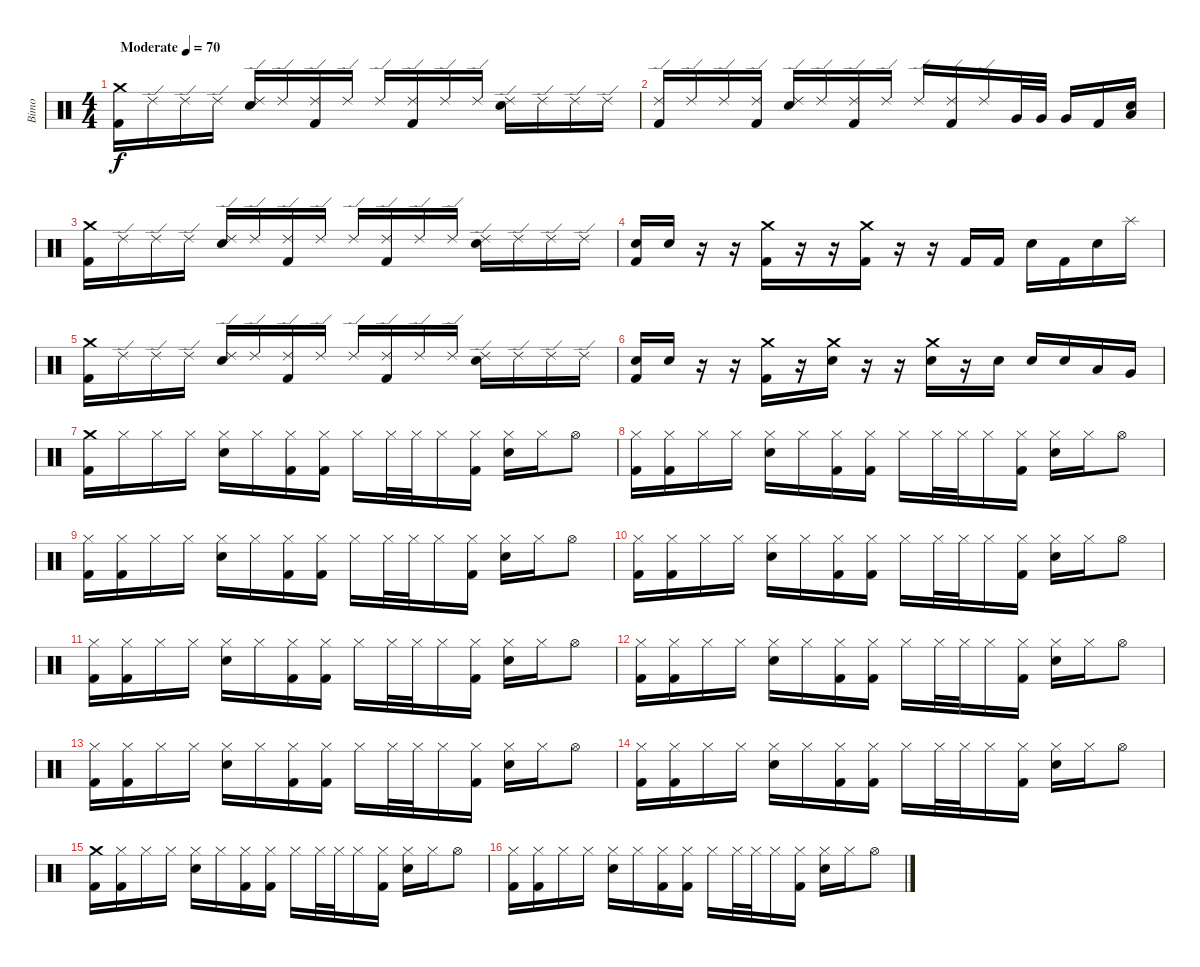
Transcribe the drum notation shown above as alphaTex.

\track ("Bimo" "Bimo") {instrument percussion}
\staff {score}
\articulation defaults
\ts (4 4)
\tempo (70 "Moderate")
\clef neutral
\ks c
("Crash medium (hit)" "Kick (hit) 2").16{dy f} "Ride (edge) 2".16 "Ride (edge) 2".16 "Ride (edge) 2".16 ("Ride (edge) 2" "Electric Snare (hit)").16 "Ride (edge) 2".16 ("Ride (edge) 2" "Kick (hit) 2").16 "Ride (edge) 2".16 "Ride (edge) 2".16 ("Ride (edge) 2" "Kick (hit) 2").16 "Ride (edge) 2".16 "Ride (edge) 2".16 ("Ride (edge) 2" "Electric Snare (hit)").16 "Ride (edge) 2".16 "Ride (edge) 2".16 "Ride (edge) 2".16 |
("Ride (edge) 2" "Kick (hit) 2").16 "Ride (edge) 2".16 "Ride (edge) 2".16 ("Ride (edge) 2" "Kick (hit) 2").16 ("Ride (edge) 2" "Electric Snare (hit)").16 "Ride (edge) 2".16 ("Ride (edge) 2" "Kick (hit) 2").16 "Ride (edge) 2".16 "Ride (edge) 2".16 ("Ride (edge) 2" "Kick (hit) 2").16 "Ride (edge) 2".16 "Very Low Tom (hit)".32 "Very Low Tom (hit)".32 "Very Low Tom (hit)".16 "Kick (hit) 2".16 ("Electric Snare (hit)" "Low Floor Tom (hit)").16 |
("Crash medium (hit)" "Kick (hit) 2").16 "Ride (edge) 2".16 "Ride (edge) 2".16 "Ride (edge) 2".16 ("Ride (edge) 2" "Electric Snare (hit)").16 "Ride (edge) 2".16 ("Ride (edge) 2" "Kick (hit) 2").16 "Ride (edge) 2".16 "Ride (edge) 2".16 ("Ride (edge) 2" "Kick (hit) 2").16 "Ride (edge) 2".16 "Ride (edge) 2".16 ("Ride (edge) 2" "Electric Snare (hit)").16 "Ride (edge) 2".16 "Ride (edge) 2".16 "Ride (edge) 2".16 |
("Electric Snare (hit)" "Kick (hit) 2").16 "Electric Snare (hit)".16 r.16 r.16 ("Crash medium (hit)" "Kick (hit) 2").16 r.16 r.16 ("Crash medium (hit)" "Kick (hit) 2").16 r.16 r.16 "Kick (hit) 2".16 "Kick (hit) 2".16 "Electric Snare (hit)".16 "Kick (hit) 2".16 "Electric Snare (hit)".16 "Splash (hit)".16 |
("Crash medium (hit)" "Kick (hit) 2").16 "Ride (edge) 2".16 "Ride (edge) 2".16 "Ride (edge) 2".16 ("Ride (edge) 2" "Electric Snare (hit)").16 "Ride (edge) 2".16 ("Ride (edge) 2" "Kick (hit) 2").16 "Ride (edge) 2".16 "Ride (edge) 2".16 ("Ride (edge) 2" "Kick (hit) 2").16 "Ride (edge) 2".16 "Ride (edge) 2".16 ("Ride (edge) 2" "Electric Snare (hit)").16 "Ride (edge) 2".16 "Ride (edge) 2".16 "Ride (edge) 2".16 |
("Electric Snare (hit)" "Kick (hit) 2").16 "Electric Snare (hit)".16 r.16 r.16 ("Crash medium (hit)" "Kick (hit) 2").16 r.16 ("Crash medium (hit)" "Electric Snare (hit)").16 r.16 r.16 ("Crash medium (hit)" "Electric Snare (hit)").16 r.16 "Electric Snare (hit)".16 "Electric Snare (hit)".16 "Electric Snare (hit)".16 "Low Tom (hit)".16 "Very Low Tom (hit)".16 |
("Crash medium (hit)" "Kick (hit) 2").16 "Hi-Hat (closed)".16 "Hi-Hat (closed)".16 "Hi-Hat (closed)".16 ("Hi-Hat (closed)" "Snare (hit) 2").16 "Hi-Hat (closed)".16 ("Hi-Hat (closed)" "Kick (hit) 2").16 ("Hi-Hat (closed)" "Kick (hit) 2").16 "Hi-Hat (closed)".16 "Hi-Hat (closed)".32 "Hi-Hat (closed)".32 "Hi-Hat (closed)".16 ("Hi-Hat (closed)" "Kick (hit) 2").16 ("Hi-Hat (closed)" "Snare (hit) 2").16 "Hi-Hat (closed)".16 "Hi-Hat (open)".8 |
("Hi-Hat (closed)" "Kick (hit) 2").16 ("Hi-Hat (closed)" "Kick (hit) 2").16 "Hi-Hat (closed)".16 "Hi-Hat (closed)".16 ("Hi-Hat (closed)" "Snare (hit) 2").16 "Hi-Hat (closed)".16 ("Hi-Hat (closed)" "Kick (hit) 2").16 ("Hi-Hat (closed)" "Kick (hit) 2").16 "Hi-Hat (closed)".16 "Hi-Hat (closed)".32 "Hi-Hat (closed)".32 "Hi-Hat (closed)".16 ("Hi-Hat (closed)" "Kick (hit) 2").16 ("Hi-Hat (closed)" "Snare (hit) 2").16 "Hi-Hat (closed)".16 "Hi-Hat (open)".8 |
("Hi-Hat (closed)" "Kick (hit) 2").16 ("Hi-Hat (closed)" "Kick (hit) 2").16 "Hi-Hat (closed)".16 "Hi-Hat (closed)".16 ("Hi-Hat (closed)" "Snare (hit) 2").16 "Hi-Hat (closed)".16 ("Hi-Hat (closed)" "Kick (hit) 2").16 ("Hi-Hat (closed)" "Kick (hit) 2").16 "Hi-Hat (closed)".16 "Hi-Hat (closed)".32 "Hi-Hat (closed)".32 "Hi-Hat (closed)".16 ("Hi-Hat (closed)" "Kick (hit) 2").16 ("Hi-Hat (closed)" "Snare (hit) 2").16 "Hi-Hat (closed)".16 "Hi-Hat (open)".8 |
("Hi-Hat (closed)" "Kick (hit) 2").16 ("Hi-Hat (closed)" "Kick (hit) 2").16 "Hi-Hat (closed)".16 "Hi-Hat (closed)".16 ("Hi-Hat (closed)" "Snare (hit) 2").16 "Hi-Hat (closed)".16 ("Hi-Hat (closed)" "Kick (hit) 2").16 ("Hi-Hat (closed)" "Kick (hit) 2").16 "Hi-Hat (closed)".16 "Hi-Hat (closed)".32 "Hi-Hat (closed)".32 "Hi-Hat (closed)".16 ("Hi-Hat (closed)" "Kick (hit) 2").16 ("Hi-Hat (closed)" "Snare (hit) 2").16 "Hi-Hat (closed)".16 "Hi-Hat (open)".8 |
("Hi-Hat (closed)" "Kick (hit) 2").16 ("Hi-Hat (closed)" "Kick (hit) 2").16 "Hi-Hat (closed)".16 "Hi-Hat (closed)".16 ("Hi-Hat (closed)" "Snare (hit) 2").16 "Hi-Hat (closed)".16 ("Hi-Hat (closed)" "Kick (hit) 2").16 ("Hi-Hat (closed)" "Kick (hit) 2").16 "Hi-Hat (closed)".16 "Hi-Hat (closed)".32 "Hi-Hat (closed)".32 "Hi-Hat (closed)".16 ("Hi-Hat (closed)" "Kick (hit) 2").16 ("Hi-Hat (closed)" "Snare (hit) 2").16 "Hi-Hat (closed)".16 "Hi-Hat (open)".8 |
("Hi-Hat (closed)" "Kick (hit) 2").16 ("Hi-Hat (closed)" "Kick (hit) 2").16 "Hi-Hat (closed)".16 "Hi-Hat (closed)".16 ("Hi-Hat (closed)" "Snare (hit) 2").16 "Hi-Hat (closed)".16 ("Hi-Hat (closed)" "Kick (hit) 2").16 ("Hi-Hat (closed)" "Kick (hit) 2").16 "Hi-Hat (closed)".16 "Hi-Hat (closed)".32 "Hi-Hat (closed)".32 "Hi-Hat (closed)".16 ("Hi-Hat (closed)" "Kick (hit) 2").16 ("Hi-Hat (closed)" "Snare (hit) 2").16 "Hi-Hat (closed)".16 "Hi-Hat (open)".8 |
("Hi-Hat (closed)" "Kick (hit) 2").16 ("Hi-Hat (closed)" "Kick (hit) 2").16 "Hi-Hat (closed)".16 "Hi-Hat (closed)".16 ("Hi-Hat (closed)" "Snare (hit) 2").16 "Hi-Hat (closed)".16 ("Hi-Hat (closed)" "Kick (hit) 2").16 ("Hi-Hat (closed)" "Kick (hit) 2").16 "Hi-Hat (closed)".16 "Hi-Hat (closed)".32 "Hi-Hat (closed)".32 "Hi-Hat (closed)".16 ("Hi-Hat (closed)" "Kick (hit) 2").16 ("Hi-Hat (closed)" "Snare (hit) 2").16 "Hi-Hat (closed)".16 "Hi-Hat (open)".8 |
("Hi-Hat (closed)" "Kick (hit) 2").16 ("Hi-Hat (closed)" "Kick (hit) 2").16 "Hi-Hat (closed)".16 "Hi-Hat (closed)".16 ("Hi-Hat (closed)" "Snare (hit) 2").16 "Hi-Hat (closed)".16 ("Hi-Hat (closed)" "Kick (hit) 2").16 ("Hi-Hat (closed)" "Kick (hit) 2").16 "Hi-Hat (closed)".16 "Hi-Hat (closed)".32 "Hi-Hat (closed)".32 "Hi-Hat (closed)".16 ("Hi-Hat (closed)" "Kick (hit) 2").16 ("Hi-Hat (closed)" "Snare (hit) 2").16 "Hi-Hat (closed)".16 "Hi-Hat (open)".8 |
("Crash medium (hit)" "Kick (hit) 2").16 ("Hi-Hat (closed)" "Kick (hit) 2").16 "Hi-Hat (closed)".16 "Hi-Hat (closed)".16 ("Hi-Hat (closed)" "Snare (hit) 2").16 "Hi-Hat (closed)".16 ("Hi-Hat (closed)" "Kick (hit) 2").16 ("Hi-Hat (closed)" "Kick (hit) 2").16 "Hi-Hat (closed)".16 "Hi-Hat (closed)".32 "Hi-Hat (closed)".32 "Hi-Hat (closed)".16 ("Hi-Hat (closed)" "Kick (hit) 2").16 ("Hi-Hat (closed)" "Snare (hit) 2").16 "Hi-Hat (closed)".16 "Hi-Hat (open)".8 |
("Hi-Hat (closed)" "Kick (hit) 2").16 ("Hi-Hat (closed)" "Kick (hit) 2").16 "Hi-Hat (closed)".16 "Hi-Hat (closed)".16 ("Hi-Hat (closed)" "Snare (hit) 2").16 "Hi-Hat (closed)".16 ("Hi-Hat (closed)" "Kick (hit) 2").16 ("Hi-Hat (closed)" "Kick (hit) 2").16 "Hi-Hat (closed)".16 "Hi-Hat (closed)".32 "Hi-Hat (closed)".32 "Hi-Hat (closed)".16 ("Hi-Hat (closed)" "Kick (hit) 2").16 ("Hi-Hat (closed)" "Snare (hit) 2").16 "Hi-Hat (closed)".16 "Hi-Hat (open)".8
